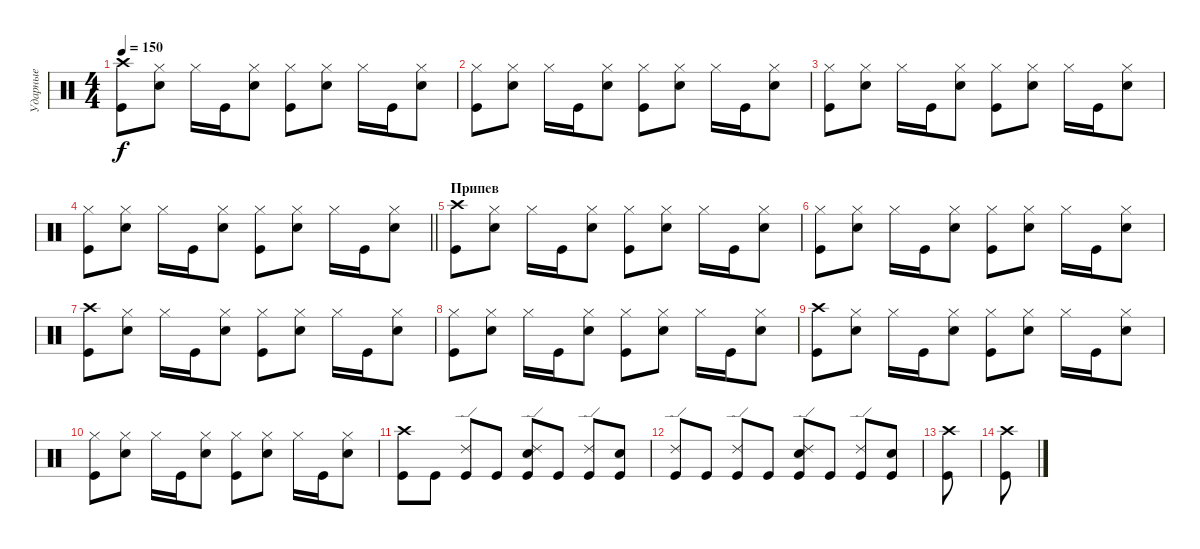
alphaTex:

\track ("Ударные" "Ударные") {instrument percussion}
\staff {score}
\articulation defaults
\ts (4 4)
\tempo 150
\clef neutral
\ks c
("Crash high (hit)" "Kick (hit)").8{dy f} ("Hi-Hat (closed)" "Snare (hit) 2").8 "Hi-Hat (closed)".16 "Kick (hit)".16 ("Hi-Hat (closed)" "Snare (hit) 2").8 ("Hi-Hat (closed)" "Kick (hit)").8 ("Hi-Hat (closed)" "Snare (hit) 2").8 "Hi-Hat (closed)".16 "Kick (hit)".16 ("Hi-Hat (closed)" "Snare (hit) 2").8 |
("Hi-Hat (closed)" "Kick (hit)").8 ("Hi-Hat (closed)" "Snare (hit) 2").8 "Hi-Hat (closed)".16 "Kick (hit)".16 ("Hi-Hat (closed)" "Snare (hit) 2").8 ("Hi-Hat (closed)" "Kick (hit)").8 ("Hi-Hat (closed)" "Snare (hit) 2").8 "Hi-Hat (closed)".16 "Kick (hit)".16 ("Hi-Hat (closed)" "Snare (hit) 2").8 |
("Hi-Hat (closed)" "Kick (hit)").8 ("Hi-Hat (closed)" "Snare (hit) 2").8 "Hi-Hat (closed)".16 "Kick (hit)".16 ("Hi-Hat (closed)" "Snare (hit) 2").8 ("Hi-Hat (closed)" "Kick (hit)").8 ("Hi-Hat (closed)" "Snare (hit) 2").8 "Hi-Hat (closed)".16 "Kick (hit)".16 ("Hi-Hat (closed)" "Snare (hit) 2").8 |
\barLineRight lightlight
("Hi-Hat (closed)" "Kick (hit)").8 ("Hi-Hat (closed)" "Snare (hit) 2").8 "Hi-Hat (closed)".16 "Kick (hit)".16 ("Hi-Hat (closed)" "Snare (hit) 2").8 ("Hi-Hat (closed)" "Kick (hit)").8 ("Hi-Hat (closed)" "Snare (hit) 2").8 "Hi-Hat (closed)".16 "Kick (hit)".16 ("Hi-Hat (closed)" "Snare (hit) 2").8 |
\section ("" "Припев")
("Crash high (hit)" "Kick (hit)").8 ("Hi-Hat (closed)" "Snare (hit) 2").8 "Hi-Hat (closed)".16 "Kick (hit)".16 ("Hi-Hat (closed)" "Snare (hit) 2").8 ("Hi-Hat (closed)" "Kick (hit)").8 ("Hi-Hat (closed)" "Snare (hit) 2").8 "Hi-Hat (closed)".16 "Kick (hit)".16 ("Hi-Hat (closed)" "Snare (hit) 2").8 |
("Hi-Hat (closed)" "Kick (hit)").8 ("Hi-Hat (closed)" "Snare (hit) 2").8 "Hi-Hat (closed)".16 "Kick (hit)".16 ("Hi-Hat (closed)" "Snare (hit) 2").8 ("Hi-Hat (closed)" "Kick (hit)").8 ("Hi-Hat (closed)" "Snare (hit) 2").8 "Hi-Hat (closed)".16 "Kick (hit)".16 ("Hi-Hat (closed)" "Snare (hit) 2").8 |
("Crash high (hit)" "Kick (hit)").8 ("Hi-Hat (closed)" "Snare (hit) 2").8 "Hi-Hat (closed)".16 "Kick (hit)".16 ("Hi-Hat (closed)" "Snare (hit) 2").8 ("Hi-Hat (closed)" "Kick (hit)").8 ("Hi-Hat (closed)" "Snare (hit) 2").8 "Hi-Hat (closed)".16 "Kick (hit)".16 ("Hi-Hat (closed)" "Snare (hit) 2").8 |
("Hi-Hat (closed)" "Kick (hit)").8 ("Hi-Hat (closed)" "Snare (hit) 2").8 "Hi-Hat (closed)".16 "Kick (hit)".16 ("Hi-Hat (closed)" "Snare (hit) 2").8 ("Hi-Hat (closed)" "Kick (hit)").8 ("Hi-Hat (closed)" "Snare (hit) 2").8 "Hi-Hat (closed)".16 "Kick (hit)".16 ("Hi-Hat (closed)" "Snare (hit) 2").8 |
("Crash high (hit)" "Kick (hit)").8 ("Hi-Hat (closed)" "Snare (hit) 2").8 "Hi-Hat (closed)".16 "Kick (hit)".16 ("Hi-Hat (closed)" "Snare (hit) 2").8 ("Hi-Hat (closed)" "Kick (hit)").8 ("Hi-Hat (closed)" "Snare (hit) 2").8 "Hi-Hat (closed)".16 "Kick (hit)".16 ("Hi-Hat (closed)" "Snare (hit) 2").8 |
("Hi-Hat (closed)" "Kick (hit)").8 ("Hi-Hat (closed)" "Snare (hit) 2").8 "Hi-Hat (closed)".16 "Kick (hit)".16 ("Hi-Hat (closed)" "Snare (hit) 2").8 ("Hi-Hat (closed)" "Kick (hit)").8 ("Hi-Hat (closed)" "Snare (hit) 2").8 "Hi-Hat (closed)".16 "Kick (hit)".16 ("Hi-Hat (closed)" "Snare (hit) 2").8 |
("Crash high (hit)" "Kick (hit)").8 "Kick (hit)".8 ("Ride (edge) 2" "Kick (hit)").8 "Kick (hit)".8 ("Ride (edge) 2" "Snare (hit) 2" "Kick (hit)").8 "Kick (hit)".8 ("Ride (edge) 2" "Kick (hit)").8 ("Snare (hit) 2" "Kick (hit)").8 |
("Ride (edge) 2" "Kick (hit)").8 "Kick (hit)".8 ("Ride (edge) 2" "Kick (hit)").8 "Kick (hit)".8 ("Ride (edge) 2" "Snare (hit) 2" "Kick (hit)").8 "Kick (hit)".8 ("Ride (edge) 2" "Kick (hit)").8 ("Snare (hit) 2" "Kick (hit)").8 |
("Crash high (hit)" "Kick (hit)").8 |
("Crash high (hit)" "Kick (hit)").8
